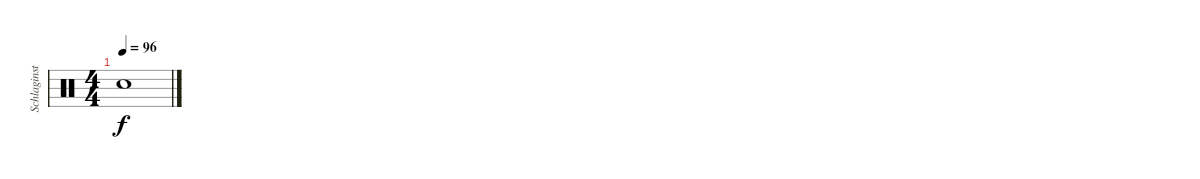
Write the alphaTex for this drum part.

\track ("Schlaginstrumente - Auswahl" "Schlaginst") {instrument percussion}
\staff {score}
\articulation defaults
\ts (4 4)
\tempo 96
\clef neutral
\ks c "Snare (hit)"{t}.1{dy f}
